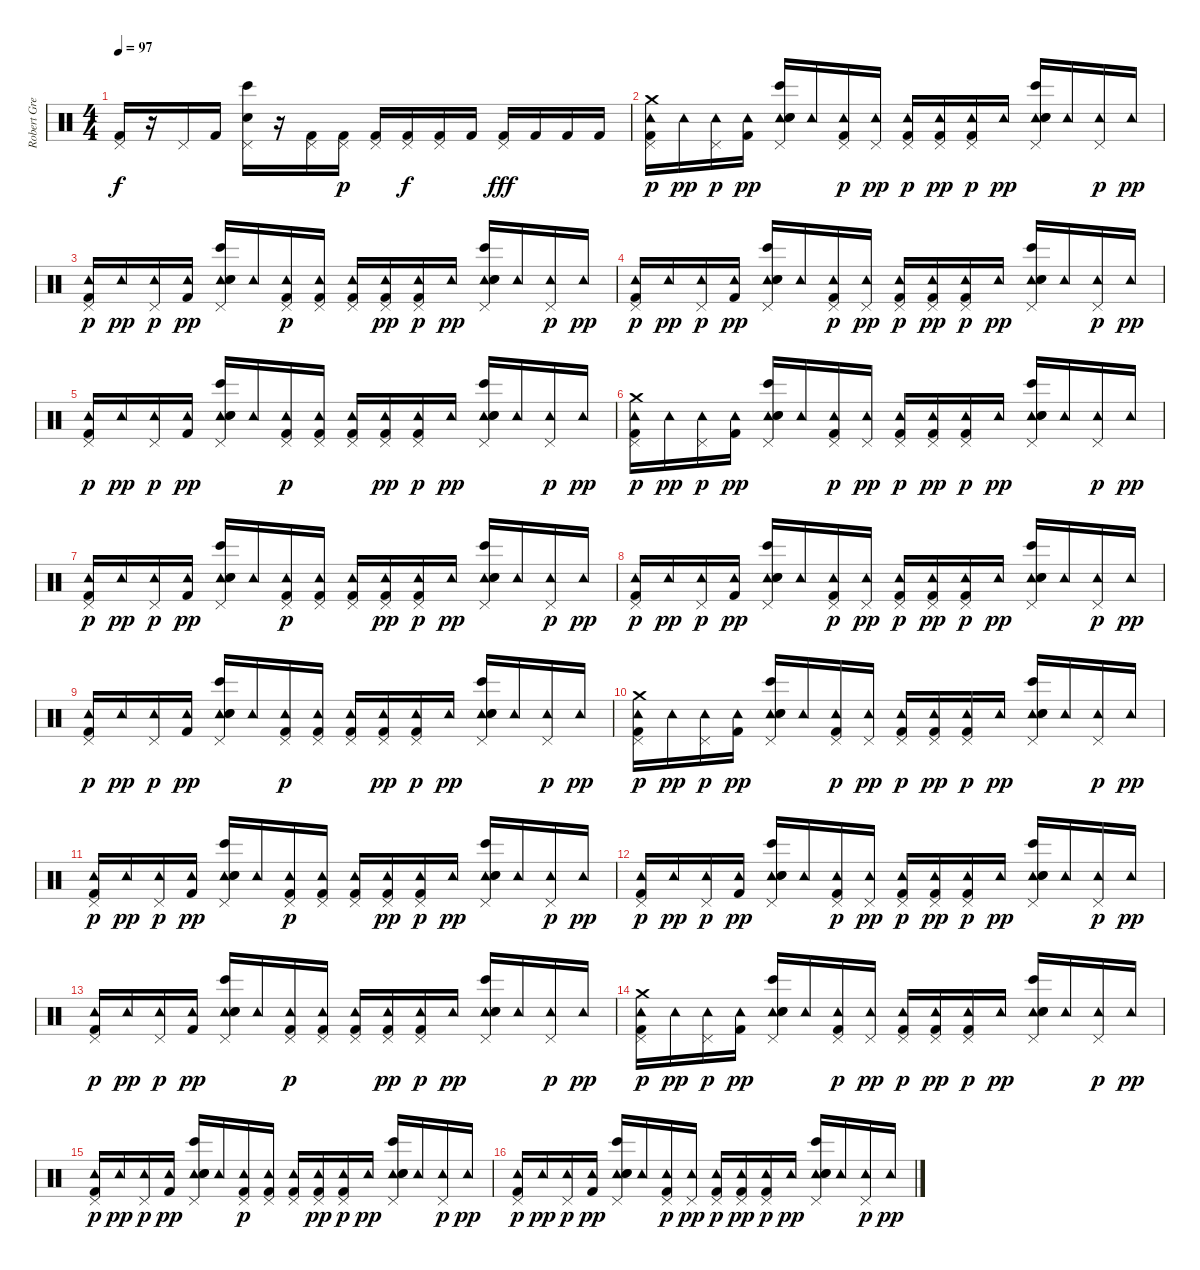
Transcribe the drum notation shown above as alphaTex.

\track ("Robert Gregory Bourdan/'Groop' sound" "Robert Gre") {instrument percussion}
\staff {score}
\articulation defaults
\ts (4 4)
\tempo 97
\clef neutral
\ks c
("Pedal Hi-Hat (hit)" "Kick (hit) 2").16{dy f} r.16 "Pedal Hi-Hat (hit)".16 "Kick (hit) 2".16 ("Pedal Hi-Hat (hit)" "Electric Snare (hit)" "Bongo High (hit)").16 r.16 ("Pedal Hi-Hat (hit)" "Kick (hit) 2").16 ("Pedal Hi-Hat (hit)" "Kick (hit) 2").16{dy p} ("Pedal Hi-Hat (hit)" "Kick (hit) 2").16 ("Pedal Hi-Hat (hit)" "Kick (hit) 2").16{dy f} ("Pedal Hi-Hat (hit)" "Kick (hit) 2").16 "Kick (hit) 2".16 ("Pedal Hi-Hat (hit)" "Kick (hit) 2").16{dy fff} "Kick (hit) 2".16 "Kick (hit) 2".16 "Kick (hit) 2".16 |
("Pedal Hi-Hat (hit)" "Tambourine (hit)" "Crash medium (hit)" "Kick (hit) 2").16{dy p} "Tambourine (hit)".16{dy pp} ("Pedal Hi-Hat (hit)" "Tambourine (hit)").16{dy p} ("Tambourine (hit)" "Kick (hit) 2").16{dy pp} ("Pedal Hi-Hat (hit)" "Tambourine (hit)" "Electric Snare (hit)" "Snare (hit) 2" "Bongo High (hit)").16 "Tambourine (hit)".16 ("Pedal Hi-Hat (hit)" "Tambourine (hit)" "Kick (hit) 2").16{dy p} ("Pedal Hi-Hat (hit)" "Tambourine (hit)").16{dy pp} ("Pedal Hi-Hat (hit)" "Tambourine (hit)" "Kick (hit) 2").16{dy p} ("Pedal Hi-Hat (hit)" "Tambourine (hit)" "Kick (hit) 2").16{dy pp} ("Pedal Hi-Hat (hit)" "Tambourine (hit)" "Kick (hit) 2").16{dy p} "Tambourine (hit)".16{dy pp} ("Pedal Hi-Hat (hit)" "Tambourine (hit)" "Electric Snare (hit)" "Snare (hit) 2" "Bongo High (hit)").16 "Tambourine (hit)".16 ("Pedal Hi-Hat (hit)" "Tambourine (hit)").16{dy p} "Tambourine (hit)".16{dy pp} |
("Pedal Hi-Hat (hit)" "Tambourine (hit)" "Kick (hit) 2").16{dy p} "Tambourine (hit)".16{dy pp} ("Pedal Hi-Hat (hit)" "Tambourine (hit)").16{dy p} ("Tambourine (hit)" "Kick (hit) 2").16{dy pp} ("Pedal Hi-Hat (hit)" "Tambourine (hit)" "Electric Snare (hit)" "Snare (hit) 2" "Bongo High (hit)").16 "Tambourine (hit)".16 ("Pedal Hi-Hat (hit)" "Tambourine (hit)" "Kick (hit) 2").16{dy p} ("Pedal Hi-Hat (hit)" "Tambourine (hit)" "Kick (hit) 2").16 ("Pedal Hi-Hat (hit)" "Tambourine (hit)" "Kick (hit) 2").16 ("Pedal Hi-Hat (hit)" "Tambourine (hit)" "Kick (hit) 2").16{dy pp} ("Pedal Hi-Hat (hit)" "Tambourine (hit)" "Kick (hit) 2").16{dy p} "Tambourine (hit)".16{dy pp} ("Pedal Hi-Hat (hit)" "Tambourine (hit)" "Electric Snare (hit)" "Snare (hit) 2" "Bongo High (hit)").16 "Tambourine (hit)".16 ("Pedal Hi-Hat (hit)" "Tambourine (hit)").16{dy p} "Tambourine (hit)".16{dy pp} |
("Pedal Hi-Hat (hit)" "Tambourine (hit)" "Kick (hit) 2").16{dy p} "Tambourine (hit)".16{dy pp} ("Pedal Hi-Hat (hit)" "Tambourine (hit)").16{dy p} ("Tambourine (hit)" "Kick (hit) 2").16{dy pp} ("Pedal Hi-Hat (hit)" "Tambourine (hit)" "Electric Snare (hit)" "Snare (hit) 2" "Bongo High (hit)").16 "Tambourine (hit)".16 ("Pedal Hi-Hat (hit)" "Tambourine (hit)" "Kick (hit) 2").16{dy p} ("Pedal Hi-Hat (hit)" "Tambourine (hit)").16{dy pp} ("Pedal Hi-Hat (hit)" "Tambourine (hit)" "Kick (hit) 2").16{dy p} ("Pedal Hi-Hat (hit)" "Tambourine (hit)" "Kick (hit) 2").16{dy pp} ("Pedal Hi-Hat (hit)" "Tambourine (hit)" "Kick (hit) 2").16{dy p} "Tambourine (hit)".16{dy pp} ("Pedal Hi-Hat (hit)" "Tambourine (hit)" "Electric Snare (hit)" "Snare (hit) 2" "Bongo High (hit)").16 "Tambourine (hit)".16 ("Pedal Hi-Hat (hit)" "Tambourine (hit)").16{dy p} "Tambourine (hit)".16{dy pp} |
("Pedal Hi-Hat (hit)" "Tambourine (hit)" "Kick (hit) 2").16{dy p} "Tambourine (hit)".16{dy pp} ("Pedal Hi-Hat (hit)" "Tambourine (hit)").16{dy p} ("Tambourine (hit)" "Kick (hit) 2").16{dy pp} ("Pedal Hi-Hat (hit)" "Tambourine (hit)" "Electric Snare (hit)" "Snare (hit) 2" "Bongo High (hit)").16 "Tambourine (hit)".16 ("Pedal Hi-Hat (hit)" "Tambourine (hit)" "Kick (hit) 2").16{dy p} ("Pedal Hi-Hat (hit)" "Tambourine (hit)" "Kick (hit) 2").16 ("Pedal Hi-Hat (hit)" "Tambourine (hit)" "Kick (hit) 2").16 ("Pedal Hi-Hat (hit)" "Tambourine (hit)" "Kick (hit) 2").16{dy pp} ("Pedal Hi-Hat (hit)" "Tambourine (hit)" "Kick (hit) 2").16{dy p} "Tambourine (hit)".16{dy pp} ("Pedal Hi-Hat (hit)" "Tambourine (hit)" "Electric Snare (hit)" "Snare (hit) 2" "Bongo High (hit)").16 "Tambourine (hit)".16 ("Pedal Hi-Hat (hit)" "Tambourine (hit)").16{dy p} "Tambourine (hit)".16{dy pp} |
("Pedal Hi-Hat (hit)" "Tambourine (hit)" "Crash medium (hit)" "Kick (hit) 2").16{dy p} "Tambourine (hit)".16{dy pp} ("Pedal Hi-Hat (hit)" "Tambourine (hit)").16{dy p} ("Tambourine (hit)" "Kick (hit) 2").16{dy pp} ("Pedal Hi-Hat (hit)" "Tambourine (hit)" "Electric Snare (hit)" "Snare (hit) 2" "Bongo High (hit)").16 "Tambourine (hit)".16 ("Pedal Hi-Hat (hit)" "Tambourine (hit)" "Kick (hit) 2").16{dy p} ("Pedal Hi-Hat (hit)" "Tambourine (hit)").16{dy pp} ("Pedal Hi-Hat (hit)" "Tambourine (hit)" "Kick (hit) 2").16{dy p} ("Pedal Hi-Hat (hit)" "Tambourine (hit)" "Kick (hit) 2").16{dy pp} ("Pedal Hi-Hat (hit)" "Tambourine (hit)" "Kick (hit) 2").16{dy p} "Tambourine (hit)".16{dy pp} ("Pedal Hi-Hat (hit)" "Tambourine (hit)" "Electric Snare (hit)" "Snare (hit) 2" "Bongo High (hit)").16 "Tambourine (hit)".16 ("Pedal Hi-Hat (hit)" "Tambourine (hit)").16{dy p} "Tambourine (hit)".16{dy pp} |
("Pedal Hi-Hat (hit)" "Tambourine (hit)" "Kick (hit) 2").16{dy p} "Tambourine (hit)".16{dy pp} ("Pedal Hi-Hat (hit)" "Tambourine (hit)").16{dy p} ("Tambourine (hit)" "Kick (hit) 2").16{dy pp} ("Pedal Hi-Hat (hit)" "Tambourine (hit)" "Electric Snare (hit)" "Snare (hit) 2" "Bongo High (hit)").16 "Tambourine (hit)".16 ("Pedal Hi-Hat (hit)" "Tambourine (hit)" "Kick (hit) 2").16{dy p} ("Pedal Hi-Hat (hit)" "Tambourine (hit)" "Kick (hit) 2").16 ("Pedal Hi-Hat (hit)" "Tambourine (hit)" "Kick (hit) 2").16 ("Pedal Hi-Hat (hit)" "Tambourine (hit)" "Kick (hit) 2").16{dy pp} ("Pedal Hi-Hat (hit)" "Tambourine (hit)" "Kick (hit) 2").16{dy p} "Tambourine (hit)".16{dy pp} ("Pedal Hi-Hat (hit)" "Tambourine (hit)" "Electric Snare (hit)" "Snare (hit) 2" "Bongo High (hit)").16 "Tambourine (hit)".16 ("Pedal Hi-Hat (hit)" "Tambourine (hit)").16{dy p} "Tambourine (hit)".16{dy pp} |
("Pedal Hi-Hat (hit)" "Tambourine (hit)" "Kick (hit) 2").16{dy p} "Tambourine (hit)".16{dy pp} ("Pedal Hi-Hat (hit)" "Tambourine (hit)").16{dy p} ("Tambourine (hit)" "Kick (hit) 2").16{dy pp} ("Pedal Hi-Hat (hit)" "Tambourine (hit)" "Electric Snare (hit)" "Snare (hit) 2" "Bongo High (hit)").16 "Tambourine (hit)".16 ("Pedal Hi-Hat (hit)" "Tambourine (hit)" "Kick (hit) 2").16{dy p} ("Pedal Hi-Hat (hit)" "Tambourine (hit)").16{dy pp} ("Pedal Hi-Hat (hit)" "Tambourine (hit)" "Kick (hit) 2").16{dy p} ("Pedal Hi-Hat (hit)" "Tambourine (hit)" "Kick (hit) 2").16{dy pp} ("Pedal Hi-Hat (hit)" "Tambourine (hit)" "Kick (hit) 2").16{dy p} "Tambourine (hit)".16{dy pp} ("Pedal Hi-Hat (hit)" "Tambourine (hit)" "Electric Snare (hit)" "Snare (hit) 2" "Bongo High (hit)").16 "Tambourine (hit)".16 ("Pedal Hi-Hat (hit)" "Tambourine (hit)").16{dy p} "Tambourine (hit)".16{dy pp} |
("Pedal Hi-Hat (hit)" "Tambourine (hit)" "Kick (hit) 2").16{dy p} "Tambourine (hit)".16{dy pp} ("Pedal Hi-Hat (hit)" "Tambourine (hit)").16{dy p} ("Tambourine (hit)" "Kick (hit) 2").16{dy pp} ("Pedal Hi-Hat (hit)" "Tambourine (hit)" "Electric Snare (hit)" "Snare (hit) 2" "Bongo High (hit)").16 "Tambourine (hit)".16 ("Pedal Hi-Hat (hit)" "Tambourine (hit)" "Kick (hit) 2").16{dy p} ("Pedal Hi-Hat (hit)" "Tambourine (hit)" "Kick (hit) 2").16 ("Pedal Hi-Hat (hit)" "Tambourine (hit)" "Kick (hit) 2").16 ("Pedal Hi-Hat (hit)" "Tambourine (hit)" "Kick (hit) 2").16{dy pp} ("Pedal Hi-Hat (hit)" "Tambourine (hit)" "Kick (hit) 2").16{dy p} "Tambourine (hit)".16{dy pp} ("Pedal Hi-Hat (hit)" "Tambourine (hit)" "Electric Snare (hit)" "Snare (hit) 2" "Bongo High (hit)").16 "Tambourine (hit)".16 ("Pedal Hi-Hat (hit)" "Tambourine (hit)").16{dy p} "Tambourine (hit)".16{dy pp} |
("Pedal Hi-Hat (hit)" "Tambourine (hit)" "Crash medium (hit)" "Kick (hit) 2").16{dy p} "Tambourine (hit)".16{dy pp} ("Pedal Hi-Hat (hit)" "Tambourine (hit)").16{dy p} ("Tambourine (hit)" "Kick (hit) 2").16{dy pp} ("Pedal Hi-Hat (hit)" "Tambourine (hit)" "Electric Snare (hit)" "Snare (hit) 2" "Bongo High (hit)").16 "Tambourine (hit)".16 ("Pedal Hi-Hat (hit)" "Tambourine (hit)" "Kick (hit) 2").16{dy p} ("Pedal Hi-Hat (hit)" "Tambourine (hit)").16{dy pp} ("Pedal Hi-Hat (hit)" "Tambourine (hit)" "Kick (hit) 2").16{dy p} ("Pedal Hi-Hat (hit)" "Tambourine (hit)" "Kick (hit) 2").16{dy pp} ("Pedal Hi-Hat (hit)" "Tambourine (hit)" "Kick (hit) 2").16{dy p} "Tambourine (hit)".16{dy pp} ("Pedal Hi-Hat (hit)" "Tambourine (hit)" "Electric Snare (hit)" "Snare (hit) 2" "Bongo High (hit)").16 "Tambourine (hit)".16 ("Pedal Hi-Hat (hit)" "Tambourine (hit)").16{dy p} "Tambourine (hit)".16{dy pp} |
("Pedal Hi-Hat (hit)" "Tambourine (hit)" "Kick (hit) 2").16{dy p} "Tambourine (hit)".16{dy pp} ("Pedal Hi-Hat (hit)" "Tambourine (hit)").16{dy p} ("Tambourine (hit)" "Kick (hit) 2").16{dy pp} ("Pedal Hi-Hat (hit)" "Tambourine (hit)" "Electric Snare (hit)" "Snare (hit) 2" "Bongo High (hit)").16 "Tambourine (hit)".16 ("Pedal Hi-Hat (hit)" "Tambourine (hit)" "Kick (hit) 2").16{dy p} ("Pedal Hi-Hat (hit)" "Tambourine (hit)" "Kick (hit) 2").16 ("Pedal Hi-Hat (hit)" "Tambourine (hit)" "Kick (hit) 2").16 ("Pedal Hi-Hat (hit)" "Tambourine (hit)" "Kick (hit) 2").16{dy pp} ("Pedal Hi-Hat (hit)" "Tambourine (hit)" "Kick (hit) 2").16{dy p} "Tambourine (hit)".16{dy pp} ("Pedal Hi-Hat (hit)" "Tambourine (hit)" "Electric Snare (hit)" "Snare (hit) 2" "Bongo High (hit)").16 "Tambourine (hit)".16 ("Pedal Hi-Hat (hit)" "Tambourine (hit)").16{dy p} "Tambourine (hit)".16{dy pp} |
("Pedal Hi-Hat (hit)" "Tambourine (hit)" "Kick (hit) 2").16{dy p} "Tambourine (hit)".16{dy pp} ("Pedal Hi-Hat (hit)" "Tambourine (hit)").16{dy p} ("Tambourine (hit)" "Kick (hit) 2").16{dy pp} ("Pedal Hi-Hat (hit)" "Tambourine (hit)" "Electric Snare (hit)" "Snare (hit) 2" "Bongo High (hit)").16 "Tambourine (hit)".16 ("Pedal Hi-Hat (hit)" "Tambourine (hit)" "Kick (hit) 2").16{dy p} ("Pedal Hi-Hat (hit)" "Tambourine (hit)").16{dy pp} ("Pedal Hi-Hat (hit)" "Tambourine (hit)" "Kick (hit) 2").16{dy p} ("Pedal Hi-Hat (hit)" "Tambourine (hit)" "Kick (hit) 2").16{dy pp} ("Pedal Hi-Hat (hit)" "Tambourine (hit)" "Kick (hit) 2").16{dy p} "Tambourine (hit)".16{dy pp} ("Pedal Hi-Hat (hit)" "Tambourine (hit)" "Electric Snare (hit)" "Snare (hit) 2" "Bongo High (hit)").16 "Tambourine (hit)".16 ("Pedal Hi-Hat (hit)" "Tambourine (hit)").16{dy p} "Tambourine (hit)".16{dy pp} |
("Pedal Hi-Hat (hit)" "Tambourine (hit)" "Kick (hit) 2").16{dy p} "Tambourine (hit)".16{dy pp} ("Pedal Hi-Hat (hit)" "Tambourine (hit)").16{dy p} ("Tambourine (hit)" "Kick (hit) 2").16{dy pp} ("Pedal Hi-Hat (hit)" "Tambourine (hit)" "Electric Snare (hit)" "Snare (hit) 2" "Bongo High (hit)").16 "Tambourine (hit)".16 ("Pedal Hi-Hat (hit)" "Tambourine (hit)" "Kick (hit) 2").16{dy p} ("Pedal Hi-Hat (hit)" "Tambourine (hit)" "Kick (hit) 2").16 ("Pedal Hi-Hat (hit)" "Tambourine (hit)" "Kick (hit) 2").16 ("Pedal Hi-Hat (hit)" "Tambourine (hit)" "Kick (hit) 2").16{dy pp} ("Pedal Hi-Hat (hit)" "Tambourine (hit)" "Kick (hit) 2").16{dy p} "Tambourine (hit)".16{dy pp} ("Pedal Hi-Hat (hit)" "Tambourine (hit)" "Electric Snare (hit)" "Snare (hit) 2" "Bongo High (hit)").16 "Tambourine (hit)".16 ("Pedal Hi-Hat (hit)" "Tambourine (hit)").16{dy p} "Tambourine (hit)".16{dy pp} |
("Pedal Hi-Hat (hit)" "Tambourine (hit)" "Crash medium (hit)" "Kick (hit) 2").16{dy p} "Tambourine (hit)".16{dy pp} ("Pedal Hi-Hat (hit)" "Tambourine (hit)").16{dy p} ("Tambourine (hit)" "Kick (hit) 2").16{dy pp} ("Pedal Hi-Hat (hit)" "Tambourine (hit)" "Electric Snare (hit)" "Snare (hit) 2" "Bongo High (hit)").16 "Tambourine (hit)".16 ("Pedal Hi-Hat (hit)" "Tambourine (hit)" "Kick (hit) 2").16{dy p} ("Pedal Hi-Hat (hit)" "Tambourine (hit)").16{dy pp} ("Pedal Hi-Hat (hit)" "Tambourine (hit)" "Kick (hit) 2").16{dy p} ("Pedal Hi-Hat (hit)" "Tambourine (hit)" "Kick (hit) 2").16{dy pp} ("Pedal Hi-Hat (hit)" "Tambourine (hit)" "Kick (hit) 2").16{dy p} "Tambourine (hit)".16{dy pp} ("Pedal Hi-Hat (hit)" "Tambourine (hit)" "Electric Snare (hit)" "Snare (hit) 2" "Bongo High (hit)").16 "Tambourine (hit)".16 ("Pedal Hi-Hat (hit)" "Tambourine (hit)").16{dy p} "Tambourine (hit)".16{dy pp} |
("Pedal Hi-Hat (hit)" "Tambourine (hit)" "Kick (hit) 2").16{dy p} "Tambourine (hit)".16{dy pp} ("Pedal Hi-Hat (hit)" "Tambourine (hit)").16{dy p} ("Tambourine (hit)" "Kick (hit) 2").16{dy pp} ("Pedal Hi-Hat (hit)" "Tambourine (hit)" "Electric Snare (hit)" "Snare (hit) 2" "Bongo High (hit)").16 "Tambourine (hit)".16 ("Pedal Hi-Hat (hit)" "Tambourine (hit)" "Kick (hit) 2").16{dy p} ("Pedal Hi-Hat (hit)" "Tambourine (hit)" "Kick (hit) 2").16 ("Pedal Hi-Hat (hit)" "Tambourine (hit)" "Kick (hit) 2").16 ("Pedal Hi-Hat (hit)" "Tambourine (hit)" "Kick (hit) 2").16{dy pp} ("Pedal Hi-Hat (hit)" "Tambourine (hit)" "Kick (hit) 2").16{dy p} "Tambourine (hit)".16{dy pp} ("Pedal Hi-Hat (hit)" "Tambourine (hit)" "Electric Snare (hit)" "Snare (hit) 2" "Bongo High (hit)").16 "Tambourine (hit)".16 ("Pedal Hi-Hat (hit)" "Tambourine (hit)").16{dy p} "Tambourine (hit)".16{dy pp} |
("Pedal Hi-Hat (hit)" "Tambourine (hit)" "Kick (hit) 2").16{dy p} "Tambourine (hit)".16{dy pp} ("Pedal Hi-Hat (hit)" "Tambourine (hit)").16{dy p} ("Tambourine (hit)" "Kick (hit) 2").16{dy pp} ("Pedal Hi-Hat (hit)" "Tambourine (hit)" "Electric Snare (hit)" "Snare (hit) 2" "Bongo High (hit)").16 "Tambourine (hit)".16 ("Pedal Hi-Hat (hit)" "Tambourine (hit)" "Kick (hit) 2").16{dy p} ("Pedal Hi-Hat (hit)" "Tambourine (hit)").16{dy pp} ("Pedal Hi-Hat (hit)" "Tambourine (hit)" "Kick (hit) 2").16{dy p} ("Pedal Hi-Hat (hit)" "Tambourine (hit)" "Kick (hit) 2").16{dy pp} ("Pedal Hi-Hat (hit)" "Tambourine (hit)" "Kick (hit) 2").16{dy p} "Tambourine (hit)".16{dy pp} ("Pedal Hi-Hat (hit)" "Tambourine (hit)" "Electric Snare (hit)" "Snare (hit) 2" "Bongo High (hit)").16 "Tambourine (hit)".16 ("Pedal Hi-Hat (hit)" "Tambourine (hit)").16{dy p} "Tambourine (hit)".16{dy pp}
